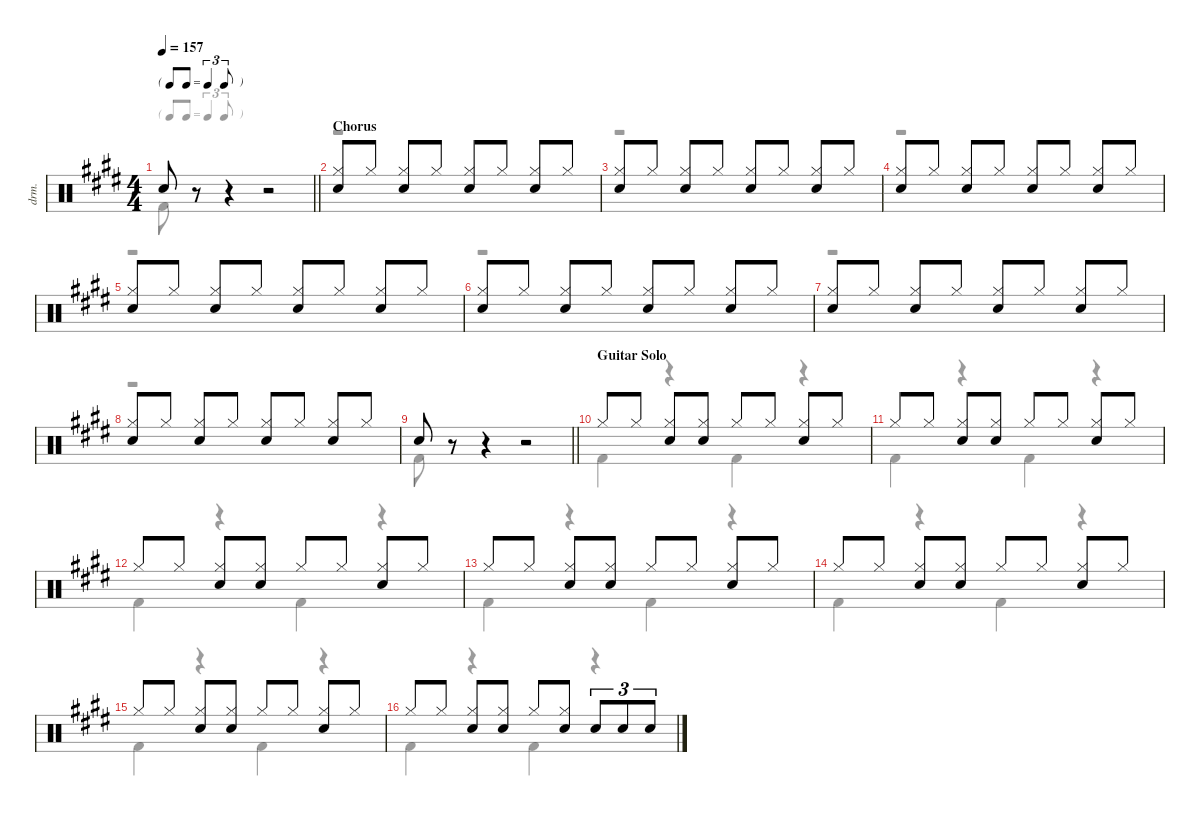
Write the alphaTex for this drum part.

\defaultSystemsLayout 4
\hideDynamics
\bracketExtendMode nobrackets
\otherSystemsTrackNameOrientation horizontal
\track ("Drums" "drm.") {instrument percussion}
\staff {score}
\articulation defaults
\voice
\ts (4 4)
\tf triplet8th
\tempo 157
\clef neutral
\barLineRight lightlight
\ks e "Snare (hit) 2"{acc forcenatural}.8{dy f beam Up}
r.8{beam Up} r.4{beam Up} r.2{beam Up} |
\section ("" "Chorus")
("Hi-Hat (closed)"{acc forcenatural} "Snare (hit) 2"{acc forcenatural}).8{beam Up} "Hi-Hat (closed)"{acc forcenatural}.8{beam Up} ("Hi-Hat (closed)"{acc forcenatural} "Snare (hit) 2"{acc forcenatural}).8{beam Up} "Hi-Hat (closed)"{acc forcenatural}.8{beam Up} ("Hi-Hat (closed)"{acc forcenatural} "Snare (hit) 2"{acc forcenatural}).8{beam Up} "Hi-Hat (closed)"{acc forcenatural}.8{beam Up} ("Hi-Hat (closed)"{acc forcenatural} "Snare (hit) 2"{acc forcenatural}).8{beam Up} "Hi-Hat (closed)"{acc forcenatural}.8{beam Up} |
("Hi-Hat (closed)"{acc forcenatural} "Snare (hit) 2"{acc forcenatural}).8{beam Up} "Hi-Hat (closed)"{acc forcenatural}.8{beam Up} ("Hi-Hat (closed)"{acc forcenatural} "Snare (hit) 2"{acc forcenatural}).8{beam Up} "Hi-Hat (closed)"{acc forcenatural}.8{beam Up} ("Hi-Hat (closed)"{acc forcenatural} "Snare (hit) 2"{acc forcenatural}).8{beam Up} "Hi-Hat (closed)"{acc forcenatural}.8{beam Up} ("Hi-Hat (closed)"{acc forcenatural} "Snare (hit) 2"{acc forcenatural}).8{beam Up} "Hi-Hat (closed)"{acc forcenatural}.8{beam Up} |
("Hi-Hat (closed)"{acc forcenatural} "Snare (hit) 2"{acc forcenatural}).8{beam Up} "Hi-Hat (closed)"{acc forcenatural}.8{beam Up} ("Hi-Hat (closed)"{acc forcenatural} "Snare (hit) 2"{acc forcenatural}).8{beam Up} "Hi-Hat (closed)"{acc forcenatural}.8{beam Up} ("Hi-Hat (closed)"{acc forcenatural} "Snare (hit) 2"{acc forcenatural}).8{beam Up} "Hi-Hat (closed)"{acc forcenatural}.8{beam Up} ("Hi-Hat (closed)"{acc forcenatural} "Snare (hit) 2"{acc forcenatural}).8{beam Up} "Hi-Hat (closed)"{acc forcenatural}.8{beam Up} |
("Hi-Hat (closed)"{acc forcenatural} "Snare (hit) 2"{acc forcenatural}).8{beam Up} "Hi-Hat (closed)"{acc forcenatural}.8{beam Up} ("Hi-Hat (closed)"{acc forcenatural} "Snare (hit) 2"{acc forcenatural}).8{beam Up} "Hi-Hat (closed)"{acc forcenatural}.8{beam Up} ("Hi-Hat (closed)"{acc forcenatural} "Snare (hit) 2"{acc forcenatural}).8{beam Up} "Hi-Hat (closed)"{acc forcenatural}.8{beam Up} ("Hi-Hat (closed)"{acc forcenatural} "Snare (hit) 2"{acc forcenatural}).8{beam Up} "Hi-Hat (closed)"{acc forcenatural}.8{beam Up} |
("Hi-Hat (closed)"{acc forcenatural} "Snare (hit) 2"{acc forcenatural}).8{beam Up} "Hi-Hat (closed)"{acc forcenatural}.8{beam Up} ("Hi-Hat (closed)"{acc forcenatural} "Snare (hit) 2"{acc forcenatural}).8{beam Up} "Hi-Hat (closed)"{acc forcenatural}.8{beam Up} ("Hi-Hat (closed)"{acc forcenatural} "Snare (hit) 2"{acc forcenatural}).8{beam Up} "Hi-Hat (closed)"{acc forcenatural}.8{beam Up} ("Hi-Hat (closed)"{acc forcenatural} "Snare (hit) 2"{acc forcenatural}).8{beam Up} "Hi-Hat (closed)"{acc forcenatural}.8{beam Up} |
("Hi-Hat (closed)"{acc forcenatural} "Snare (hit) 2"{acc forcenatural}).8{beam Up} "Hi-Hat (closed)"{acc forcenatural}.8{beam Up} ("Hi-Hat (closed)"{acc forcenatural} "Snare (hit) 2"{acc forcenatural}).8{beam Up} "Hi-Hat (closed)"{acc forcenatural}.8{beam Up} ("Hi-Hat (closed)"{acc forcenatural} "Snare (hit) 2"{acc forcenatural}).8{beam Up} "Hi-Hat (closed)"{acc forcenatural}.8{beam Up} ("Hi-Hat (closed)"{acc forcenatural} "Snare (hit) 2"{acc forcenatural}).8{beam Up} "Hi-Hat (closed)"{acc forcenatural}.8{beam Up} |
("Hi-Hat (closed)"{acc forcenatural} "Snare (hit) 2"{acc forcenatural}).8{beam Up} "Hi-Hat (closed)"{acc forcenatural}.8{beam Up} ("Hi-Hat (closed)"{acc forcenatural} "Snare (hit) 2"{acc forcenatural}).8{beam Up} "Hi-Hat (closed)"{acc forcenatural}.8{beam Up} ("Hi-Hat (closed)"{acc forcenatural} "Snare (hit) 2"{acc forcenatural}).8{beam Up} "Hi-Hat (closed)"{acc forcenatural}.8{beam Up} ("Hi-Hat (closed)"{acc forcenatural} "Snare (hit) 2"{acc forcenatural}).8{beam Up} "Hi-Hat (closed)"{acc forcenatural}.8{beam Up} |
\barLineRight lightlight "Snare (hit) 2"{acc forcenatural}.8{beam Up}
r.8{beam Up} r.4{beam Up} r.2{beam Up} |
\section ("" "Guitar Solo")
"Hi-Hat (closed)"{acc forcenatural}.8{beam Up} "Hi-Hat (closed)"{acc forcenatural}.8{beam Up} ("Hi-Hat (closed)"{acc forcenatural} "Snare (hit) 2"{acc forcenatural}).8{beam Up} ("Hi-Hat (closed)"{acc forcenatural} "Snare (hit) 2"{acc forcenatural}).8{beam Up} "Hi-Hat (closed)"{acc forcenatural}.8{beam Up} "Hi-Hat (closed)"{acc forcenatural}.8{beam Up} ("Hi-Hat (closed)"{acc forcenatural} "Snare (hit) 2"{acc forcenatural}).8{beam Up} "Hi-Hat (closed)"{acc forcenatural}.8{beam Up} |
"Hi-Hat (closed)"{acc forcenatural}.8{beam Up} "Hi-Hat (closed)"{acc forcenatural}.8{beam Up} ("Hi-Hat (closed)"{acc forcenatural} "Snare (hit) 2"{acc forcenatural}).8{beam Up} ("Hi-Hat (closed)"{acc forcenatural} "Snare (hit) 2"{acc forcenatural}).8{beam Up} "Hi-Hat (closed)"{acc forcenatural}.8{beam Up} "Hi-Hat (closed)"{acc forcenatural}.8{beam Up} ("Hi-Hat (closed)"{acc forcenatural} "Snare (hit) 2"{acc forcenatural}).8{beam Up} "Hi-Hat (closed)"{acc forcenatural}.8{beam Up} |
"Hi-Hat (closed)"{acc forcenatural}.8{beam Up} "Hi-Hat (closed)"{acc forcenatural}.8{beam Up} ("Hi-Hat (closed)"{acc forcenatural} "Snare (hit) 2"{acc forcenatural}).8{beam Up} ("Hi-Hat (closed)"{acc forcenatural} "Snare (hit) 2"{acc forcenatural}).8{beam Up} "Hi-Hat (closed)"{acc forcenatural}.8{beam Up} "Hi-Hat (closed)"{acc forcenatural}.8{beam Up} ("Hi-Hat (closed)"{acc forcenatural} "Snare (hit) 2"{acc forcenatural}).8{beam Up} "Hi-Hat (closed)"{acc forcenatural}.8{beam Up} |
"Hi-Hat (closed)"{acc forcenatural}.8{beam Up} "Hi-Hat (closed)"{acc forcenatural}.8{beam Up} ("Hi-Hat (closed)"{acc forcenatural} "Snare (hit) 2"{acc forcenatural}).8{beam Up} ("Hi-Hat (closed)"{acc forcenatural} "Snare (hit) 2"{acc forcenatural}).8{beam Up} "Hi-Hat (closed)"{acc forcenatural}.8{beam Up} "Hi-Hat (closed)"{acc forcenatural}.8{beam Up} ("Hi-Hat (closed)"{acc forcenatural} "Snare (hit) 2"{acc forcenatural}).8{beam Up} "Hi-Hat (closed)"{acc forcenatural}.8{beam Up} |
"Hi-Hat (closed)"{acc forcenatural}.8{beam Up} "Hi-Hat (closed)"{acc forcenatural}.8{beam Up} ("Hi-Hat (closed)"{acc forcenatural} "Snare (hit) 2"{acc forcenatural}).8{beam Up} ("Hi-Hat (closed)"{acc forcenatural} "Snare (hit) 2"{acc forcenatural}).8{beam Up} "Hi-Hat (closed)"{acc forcenatural}.8{beam Up} "Hi-Hat (closed)"{acc forcenatural}.8{beam Up} ("Hi-Hat (closed)"{acc forcenatural} "Snare (hit) 2"{acc forcenatural}).8{beam Up} "Hi-Hat (closed)"{acc forcenatural}.8{beam Up} |
"Hi-Hat (closed)"{acc forcenatural}.8{beam Up} "Hi-Hat (closed)"{acc forcenatural}.8{beam Up} ("Hi-Hat (closed)"{acc forcenatural} "Snare (hit) 2"{acc forcenatural}).8{beam Up} ("Hi-Hat (closed)"{acc forcenatural} "Snare (hit) 2"{acc forcenatural}).8{beam Up} "Hi-Hat (closed)"{acc forcenatural}.8{beam Up} "Hi-Hat (closed)"{acc forcenatural}.8{beam Up} ("Hi-Hat (closed)"{acc forcenatural} "Snare (hit) 2"{acc forcenatural}).8{beam Up} "Hi-Hat (closed)"{acc forcenatural}.8{beam Up} |
"Hi-Hat (closed)"{acc forcenatural}.8{beam Up} "Hi-Hat (closed)"{acc forcenatural}.8{beam Up} ("Hi-Hat (closed)"{acc forcenatural} "Snare (hit) 2"{acc forcenatural}).8{beam Up} ("Hi-Hat (closed)"{acc forcenatural} "Snare (hit) 2"{acc forcenatural}).8{beam Up} "Hi-Hat (closed)"{acc forcenatural}.8{beam Up} ("Hi-Hat (closed)"{acc forcenatural} "Snare (hit) 2"{acc forcenatural}).8{beam Up} "Snare (hit) 2"{acc forcenatural}.8{tu (3 2) beam Up} "Snare (hit) 2"{acc forcenatural}.8{tu (3 2) beam Up} "Snare (hit) 2"{acc forcenatural}.8{tu (3 2) beam Up}
\voice
\clef neutral
\ottava regular
\simile none
\barLineRight lightlight
\ks e "Kick (hit) 2"{acc forcenatural}.8{dy f beam Down}
r.8{beam Down} r.4{beam Down} r.2{beam Down} |
r.1{beam Down} |
r.1{beam Down} |
r.1{beam Down} |
r.1{beam Down} |
r.1{beam Down} |
r.1{beam Down} |
r.1{beam Down} |
\barLineRight lightlight "Kick (hit) 2"{acc forcenatural}.8{beam Down}
r.8{beam Down} r.4{beam Down} r.2{beam Down} |
"Kick (hit) 2"{acc forcenatural}.4{beam Down} r.4{beam Down} "Kick (hit) 2"{acc forcenatural}.4{beam Down} r.4{beam Down} |
"Kick (hit) 2"{acc forcenatural}.4{beam Down} r.4{beam Down} "Kick (hit) 2"{acc forcenatural}.4{beam Down} r.4{beam Down} |
"Kick (hit) 2"{acc forcenatural}.4{beam Down} r.4{beam Down} "Kick (hit) 2"{acc forcenatural}.4{beam Down} r.4{beam Down} |
"Kick (hit) 2"{acc forcenatural}.4{beam Down} r.4{beam Down} "Kick (hit) 2"{acc forcenatural}.4{beam Down} r.4{beam Down} |
"Kick (hit) 2"{acc forcenatural}.4{beam Down} r.4{beam Down} "Kick (hit) 2"{acc forcenatural}.4{beam Down} r.4{beam Down} |
"Kick (hit) 2"{acc forcenatural}.4{beam Down} r.4{beam Down} "Kick (hit) 2"{acc forcenatural}.4{beam Down} r.4{beam Down} |
"Kick (hit) 2"{acc forcenatural}.4{beam Down} r.4{beam Down} "Kick (hit) 2"{acc forcenatural}.4{beam Down} r.4{beam Down}
